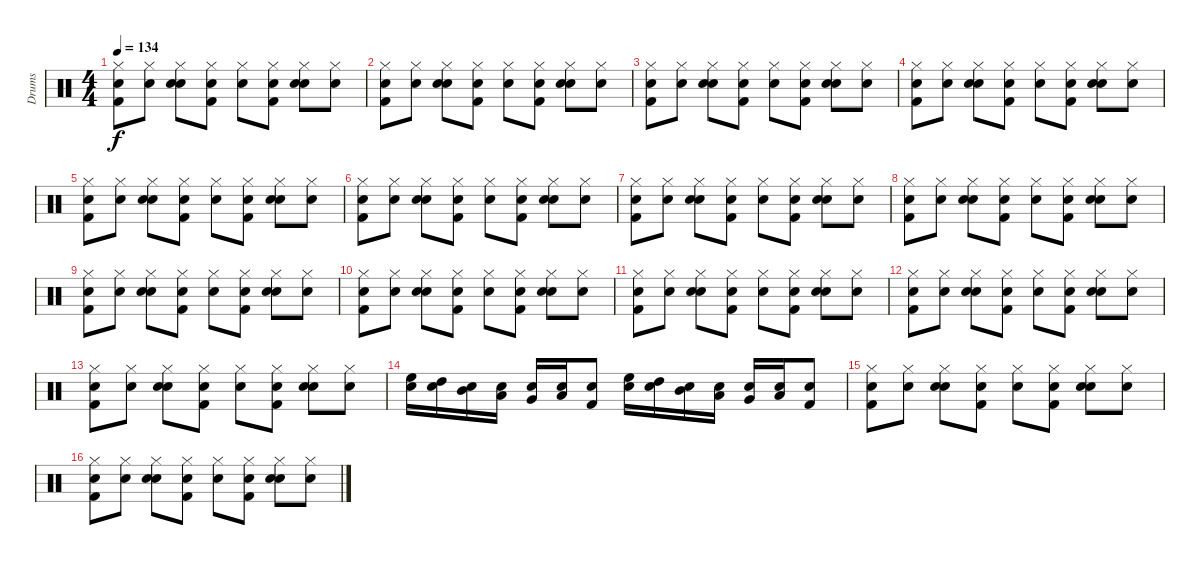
\track ("Drums" "Drums") {instrument percussion}
\staff {score}
\articulation defaults
\ts (4 4)
\tempo 134
\clef neutral
\ks c
("Snare (hit)" "Kick (hit) 2" "Hi-Hat (closed)").8{dy f} ("Snare (hit)" "Hi-Hat (closed)").8 ("Snare (hit)" "Snare (hit) 2" "Hi-Hat (closed)").8 ("Snare (hit)" "Kick (hit) 2" "Hi-Hat (closed)").8 ("Snare (hit)" "Hi-Hat (closed)").8 ("Snare (hit)" "Kick (hit) 2" "Hi-Hat (closed)").8 ("Snare (hit)" "Snare (hit) 2" "Hi-Hat (closed)").8 ("Snare (hit)" "Hi-Hat (closed)").8 |
("Snare (hit)" "Kick (hit) 2" "Hi-Hat (closed)").8 ("Snare (hit)" "Hi-Hat (closed)").8 ("Snare (hit)" "Snare (hit) 2" "Hi-Hat (closed)").8 ("Snare (hit)" "Kick (hit) 2" "Hi-Hat (closed)").8 ("Snare (hit)" "Hi-Hat (closed)").8 ("Snare (hit)" "Kick (hit) 2" "Hi-Hat (closed)").8 ("Snare (hit)" "Snare (hit) 2" "Hi-Hat (closed)").8 ("Snare (hit)" "Hi-Hat (closed)").8 |
("Snare (hit)" "Kick (hit) 2" "Hi-Hat (closed)").8 ("Snare (hit)" "Hi-Hat (closed)").8 ("Snare (hit)" "Snare (hit) 2" "Hi-Hat (closed)").8 ("Snare (hit)" "Kick (hit) 2" "Hi-Hat (closed)").8 ("Snare (hit)" "Hi-Hat (closed)").8 ("Snare (hit)" "Kick (hit) 2" "Hi-Hat (closed)").8 ("Snare (hit)" "Snare (hit) 2" "Hi-Hat (closed)").8 ("Snare (hit)" "Hi-Hat (closed)").8 |
("Snare (hit)" "Kick (hit) 2" "Hi-Hat (closed)").8 ("Snare (hit)" "Hi-Hat (closed)").8 ("Snare (hit)" "Snare (hit) 2" "Hi-Hat (closed)").8 ("Snare (hit)" "Kick (hit) 2" "Hi-Hat (closed)").8 ("Snare (hit)" "Hi-Hat (closed)").8 ("Snare (hit)" "Kick (hit) 2" "Hi-Hat (closed)").8 ("Snare (hit)" "Snare (hit) 2" "Hi-Hat (closed)").8 ("Snare (hit)" "Hi-Hat (closed)").8 |
("Snare (hit)" "Kick (hit) 2" "Hi-Hat (closed)").8 ("Snare (hit)" "Hi-Hat (closed)").8 ("Snare (hit)" "Snare (hit) 2" "Hi-Hat (closed)").8 ("Snare (hit)" "Kick (hit) 2" "Hi-Hat (closed)").8 ("Snare (hit)" "Hi-Hat (closed)").8 ("Snare (hit)" "Kick (hit) 2" "Hi-Hat (closed)").8 ("Snare (hit)" "Snare (hit) 2" "Hi-Hat (closed)").8 ("Snare (hit)" "Hi-Hat (closed)").8 |
("Snare (hit)" "Kick (hit) 2" "Hi-Hat (closed)").8 ("Snare (hit)" "Hi-Hat (closed)").8 ("Snare (hit)" "Snare (hit) 2" "Hi-Hat (closed)").8 ("Snare (hit)" "Kick (hit) 2" "Hi-Hat (closed)").8 ("Snare (hit)" "Hi-Hat (closed)").8 ("Snare (hit)" "Kick (hit) 2" "Hi-Hat (closed)").8 ("Snare (hit)" "Snare (hit) 2" "Hi-Hat (closed)").8 ("Snare (hit)" "Hi-Hat (closed)").8 |
("Snare (hit)" "Kick (hit) 2" "Hi-Hat (closed)").8 ("Snare (hit)" "Hi-Hat (closed)").8 ("Snare (hit)" "Snare (hit) 2" "Hi-Hat (closed)").8 ("Snare (hit)" "Kick (hit) 2" "Hi-Hat (closed)").8 ("Snare (hit)" "Hi-Hat (closed)").8 ("Snare (hit)" "Kick (hit) 2" "Hi-Hat (closed)").8 ("Snare (hit)" "Snare (hit) 2" "Hi-Hat (closed)").8 ("Snare (hit)" "Hi-Hat (closed)").8 |
("Snare (hit)" "Kick (hit) 2" "Hi-Hat (closed)").8 ("Snare (hit)" "Hi-Hat (closed)").8 ("Snare (hit)" "Snare (hit) 2" "Hi-Hat (closed)").8 ("Snare (hit)" "Kick (hit) 2" "Hi-Hat (closed)").8 ("Snare (hit)" "Hi-Hat (closed)").8 ("Snare (hit)" "Kick (hit) 2" "Hi-Hat (closed)").8 ("Snare (hit)" "Snare (hit) 2" "Hi-Hat (closed)").8 ("Snare (hit)" "Hi-Hat (closed)").8 |
("Snare (hit)" "Kick (hit) 2" "Hi-Hat (closed)").8 ("Snare (hit)" "Hi-Hat (closed)").8 ("Snare (hit)" "Snare (hit) 2" "Hi-Hat (closed)").8 ("Snare (hit)" "Kick (hit) 2" "Hi-Hat (closed)").8 ("Snare (hit)" "Hi-Hat (closed)").8 ("Snare (hit)" "Kick (hit) 2" "Hi-Hat (closed)").8 ("Snare (hit)" "Snare (hit) 2" "Hi-Hat (closed)").8 ("Snare (hit)" "Hi-Hat (closed)").8 |
("Snare (hit)" "Kick (hit) 2" "Hi-Hat (closed)").8 ("Snare (hit)" "Hi-Hat (closed)").8 ("Snare (hit)" "Snare (hit) 2" "Hi-Hat (closed)").8 ("Snare (hit)" "Kick (hit) 2" "Hi-Hat (closed)").8 ("Snare (hit)" "Hi-Hat (closed)").8 ("Snare (hit)" "Kick (hit) 2" "Hi-Hat (closed)").8 ("Snare (hit)" "Snare (hit) 2" "Hi-Hat (closed)").8 ("Snare (hit)" "Hi-Hat (closed)").8 |
("Snare (hit)" "Kick (hit) 2" "Hi-Hat (closed)").8 ("Snare (hit)" "Hi-Hat (closed)").8 ("Snare (hit)" "Snare (hit) 2" "Hi-Hat (closed)").8 ("Snare (hit)" "Kick (hit) 2" "Hi-Hat (closed)").8 ("Snare (hit)" "Hi-Hat (closed)").8 ("Snare (hit)" "Kick (hit) 2" "Hi-Hat (closed)").8 ("Snare (hit)" "Snare (hit) 2" "Hi-Hat (closed)").8 ("Snare (hit)" "Hi-Hat (closed)").8 |
("Snare (hit)" "Kick (hit) 2" "Hi-Hat (closed)").8 ("Snare (hit)" "Hi-Hat (closed)").8 ("Snare (hit)" "Snare (hit) 2" "Hi-Hat (closed)").8 ("Snare (hit)" "Kick (hit) 2" "Hi-Hat (closed)").8 ("Snare (hit)" "Hi-Hat (closed)").8 ("Snare (hit)" "Kick (hit) 2" "Hi-Hat (closed)").8 ("Snare (hit)" "Snare (hit) 2" "Hi-Hat (closed)").8 ("Snare (hit)" "Hi-Hat (closed)").8 |
("Snare (hit)" "Kick (hit) 2" "Hi-Hat (closed)").8 ("Snare (hit)" "Hi-Hat (closed)").8 ("Snare (hit)" "Snare (hit) 2" "Hi-Hat (closed)").8 ("Snare (hit)" "Kick (hit) 2" "Hi-Hat (closed)").8 ("Snare (hit)" "Hi-Hat (closed)").8 ("Snare (hit)" "Kick (hit) 2" "Hi-Hat (closed)").8 ("Snare (hit)" "Snare (hit) 2" "Hi-Hat (closed)").8 ("Snare (hit)" "Hi-Hat (closed)").8 |
("Snare (hit)" "High Floor Tom (hit)").16 ("Snare (hit)" "High Tom (hit)").16 ("Snare (hit)" "Mid Tom (hit)").16 ("Snare (hit)" "Low Tom (hit)").16 ("Snare (hit)" "Very Low Tom (hit)").16 ("Snare (hit)" "Low Floor Tom (hit)").16 ("Snare (hit)" "Kick (hit) 2").8 ("Snare (hit)" "High Floor Tom (hit)").16 ("Snare (hit)" "High Tom (hit)").16 ("Snare (hit)" "Mid Tom (hit)").16 ("Snare (hit)" "Low Tom (hit)").16 ("Snare (hit)" "Very Low Tom (hit)").16 ("Snare (hit)" "Low Floor Tom (hit)").16 ("Snare (hit)" "Kick (hit) 2").8 |
("Snare (hit)" "Kick (hit) 2" "Hi-Hat (closed)").8 ("Snare (hit)" "Hi-Hat (closed)").8 ("Snare (hit)" "Snare (hit) 2" "Hi-Hat (closed)").8 ("Snare (hit)" "Kick (hit) 2" "Hi-Hat (closed)").8 ("Snare (hit)" "Hi-Hat (closed)").8 ("Snare (hit)" "Kick (hit) 2" "Hi-Hat (closed)").8 ("Snare (hit)" "Snare (hit) 2" "Hi-Hat (closed)").8 ("Snare (hit)" "Hi-Hat (closed)").8 |
("Snare (hit)" "Kick (hit) 2" "Hi-Hat (closed)").8 ("Snare (hit)" "Hi-Hat (closed)").8 ("Snare (hit)" "Snare (hit) 2" "Hi-Hat (closed)").8 ("Snare (hit)" "Kick (hit) 2" "Hi-Hat (closed)").8 ("Snare (hit)" "Hi-Hat (closed)").8 ("Snare (hit)" "Kick (hit) 2" "Hi-Hat (closed)").8 ("Snare (hit)" "Snare (hit) 2" "Hi-Hat (closed)").8 ("Snare (hit)" "Hi-Hat (closed)").8
